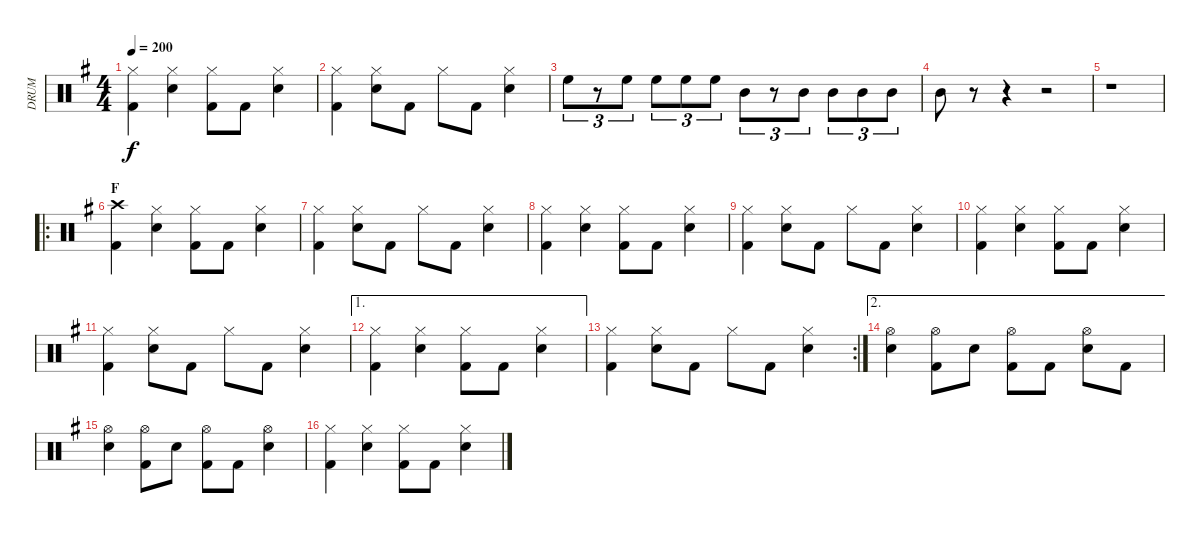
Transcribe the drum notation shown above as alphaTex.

\track ("DRUM" "DRUM") {instrument percussion}
\staff {score}
\articulation defaults
\ts (4 4)
\tempo 200
\clef neutral
\ks eminor
("Hi-Hat (closed)" "Kick (hit) 2").4{dy f} ("Hi-Hat (closed)" "Snare (hit) 2").4 ("Hi-Hat (closed)" "Kick (hit) 2").8 "Kick (hit) 2".8 ("Hi-Hat (closed)" "Snare (hit) 2").4 |
("Hi-Hat (closed)" "Kick (hit) 2").4 ("Hi-Hat (closed)" "Snare (hit) 2").8 "Kick (hit) 2".8 "Hi-Hat (closed)".8 "Kick (hit) 2".8 ("Hi-Hat (closed)" "Snare (hit) 2").4 |
"High Floor Tom (hit)".8{tu (3 2)} r.8{tu (3 2)} "High Floor Tom (hit)".8{tu (3 2)} "High Floor Tom (hit)".8{tu (3 2)} "High Floor Tom (hit)".8{tu (3 2)} "High Floor Tom (hit)".8{tu (3 2)} "Mid Tom (hit)".8{tu (3 2)} r.8{tu (3 2)} "Mid Tom (hit)".8{tu (3 2)} "Mid Tom (hit)".8{tu (3 2)} "Mid Tom (hit)".8{tu (3 2)} "Mid Tom (hit)".8{tu (3 2)} |
"Mid Tom (hit)".8 r.8 r.4 r.2 |
r.1 |
\ro
\section ("" "F")
("Crash high (hit)" "Kick (hit) 2").4 ("Hi-Hat (closed)" "Snare (hit) 2").4 ("Hi-Hat (closed)" "Kick (hit) 2").8 "Kick (hit) 2".8 ("Hi-Hat (closed)" "Snare (hit) 2").4 |
("Hi-Hat (closed)" "Kick (hit) 2").4 ("Hi-Hat (closed)" "Snare (hit) 2").8 "Kick (hit) 2".8 "Hi-Hat (closed)".8 "Kick (hit) 2".8 ("Hi-Hat (closed)" "Snare (hit) 2").4 |
("Hi-Hat (closed)" "Kick (hit) 2").4 ("Hi-Hat (closed)" "Snare (hit) 2").4 ("Hi-Hat (closed)" "Kick (hit) 2").8 "Kick (hit) 2".8 ("Hi-Hat (closed)" "Snare (hit) 2").4 |
("Hi-Hat (closed)" "Kick (hit) 2").4 ("Hi-Hat (closed)" "Snare (hit) 2").8 "Kick (hit) 2".8 "Hi-Hat (closed)".8 "Kick (hit) 2".8 ("Hi-Hat (closed)" "Snare (hit) 2").4 |
("Hi-Hat (closed)" "Kick (hit) 2").4 ("Hi-Hat (closed)" "Snare (hit) 2").4 ("Hi-Hat (closed)" "Kick (hit) 2").8 "Kick (hit) 2".8 ("Hi-Hat (closed)" "Snare (hit) 2").4 |
("Hi-Hat (closed)" "Kick (hit) 2").4 ("Hi-Hat (closed)" "Snare (hit) 2").8 "Kick (hit) 2".8 "Hi-Hat (closed)".8 "Kick (hit) 2".8 ("Hi-Hat (closed)" "Snare (hit) 2").4 |
\ae 1
("Hi-Hat (closed)" "Kick (hit) 2").4 ("Hi-Hat (closed)" "Snare (hit) 2").4 ("Hi-Hat (closed)" "Kick (hit) 2").8 "Kick (hit) 2".8 ("Hi-Hat (closed)" "Snare (hit) 2").4 |
\rc 2
("Hi-Hat (closed)" "Kick (hit) 2").4 ("Hi-Hat (closed)" "Snare (hit) 2").8 "Kick (hit) 2".8 "Hi-Hat (closed)".8 "Kick (hit) 2".8 ("Hi-Hat (closed)" "Snare (hit) 2").4 |
\ae 2
("Hi-Hat (open)" "Snare (hit) 2").4 ("Hi-Hat (open)" "Kick (hit) 2").8 "Snare (hit) 2".8 ("Hi-Hat (open)" "Kick (hit) 2").8 "Kick (hit) 2".8 ("Hi-Hat (open)" "Snare (hit) 2").8 "Kick (hit) 2".8 |
("Hi-Hat (open)" "Snare (hit) 2").4 ("Hi-Hat (open)" "Kick (hit) 2").8 "Snare (hit) 2".8 ("Hi-Hat (open)" "Kick (hit) 2").8 "Kick (hit) 2".8 ("Hi-Hat (open)" "Snare (hit) 2").4 |
("Hi-Hat (closed)" "Kick (hit) 2").4 ("Hi-Hat (closed)" "Snare (hit) 2").4 ("Hi-Hat (closed)" "Kick (hit) 2").8 "Kick (hit) 2".8 ("Hi-Hat (closed)" "Snare (hit) 2").4
